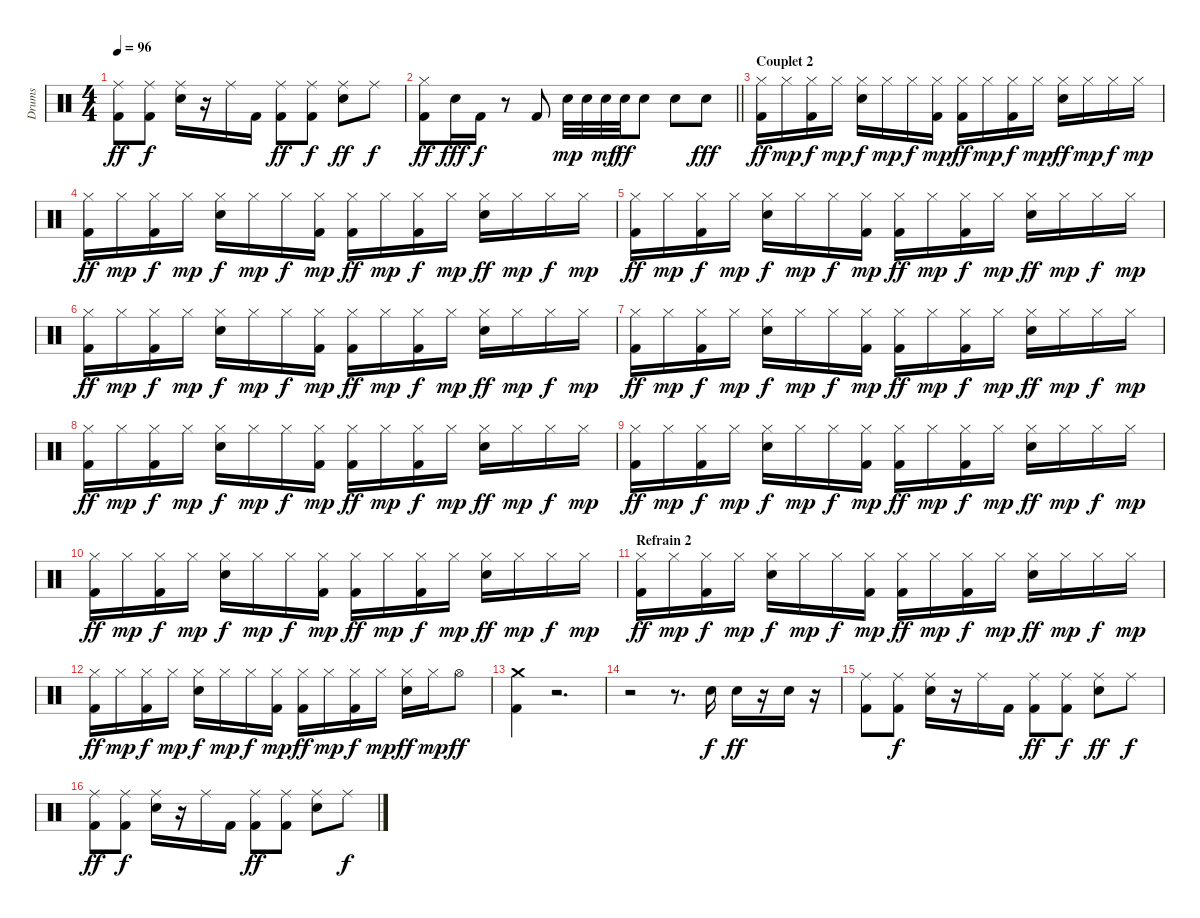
\track ("Drums" "Drums") {instrument percussion}
\staff {score}
\articulation defaults
\ts (4 4)
\tempo 96
\clef neutral
\ks c
("Ride (middle)" "Kick (hit) 2").8{dy ff} ("Ride (middle)" "Kick (hit) 2").8{dy f} ("Ride (middle)" "Snare (hit) 2").16 r.16 "Ride (middle)".16 "Kick (hit) 2".16 ("Ride (middle)" "Kick (hit) 2").8{dy ff} ("Ride (middle)" "Kick (hit) 2").8{dy f} ("Ride (middle)" "Snare (hit) 2").8{dy ff} "Ride (middle)".8{dy f} |
\barLineRight lightlight
("Hi-Hat (closed)" "Kick (hit) 2").8{dy ff} "Snare (hit) 2".16{dy fff} "Kick (hit) 2".16{dy f} r.8 "Kick (hit) 2".8 "Snare (hit) 2".32{dy mp} "Snare (hit) 2".32 "Snare (hit) 2".32{dy mf} "Snare (hit) 2".32{dy ff} "Snare (hit) 2".8 "Snare (hit) 2".8 "Snare (hit) 2".8{dy fff} |
\section ("" "Couplet 2")
("Hi-Hat (closed)" "Kick (hit) 2").16{dy ff} "Hi-Hat (closed)".16{dy mp} ("Hi-Hat (closed)" "Kick (hit) 2").16{dy f} "Hi-Hat (closed)".16{dy mp} ("Hi-Hat (closed)" "Snare (hit) 2").16{dy f} "Hi-Hat (closed)".16{dy mp} "Hi-Hat (closed)".16{dy f} ("Hi-Hat (closed)" "Kick (hit) 2").16{dy mp} ("Hi-Hat (closed)" "Kick (hit) 2").16{dy ff} "Hi-Hat (closed)".16{dy mp} ("Hi-Hat (closed)" "Kick (hit) 2").16{dy f} "Hi-Hat (closed)".16{dy mp} ("Hi-Hat (closed)" "Snare (hit) 2").16{dy ff} "Hi-Hat (closed)".16{dy mp} "Hi-Hat (closed)".16{dy f} "Hi-Hat (closed)".16{dy mp} |
("Hi-Hat (closed)" "Kick (hit) 2").16{dy ff} "Hi-Hat (closed)".16{dy mp} ("Hi-Hat (closed)" "Kick (hit) 2").16{dy f} "Hi-Hat (closed)".16{dy mp} ("Hi-Hat (closed)" "Snare (hit) 2").16{dy f} "Hi-Hat (closed)".16{dy mp} "Hi-Hat (closed)".16{dy f} ("Hi-Hat (closed)" "Kick (hit) 2").16{dy mp} ("Hi-Hat (closed)" "Kick (hit) 2").16{dy ff} "Hi-Hat (closed)".16{dy mp} ("Hi-Hat (closed)" "Kick (hit) 2").16{dy f} "Hi-Hat (closed)".16{dy mp} ("Hi-Hat (closed)" "Snare (hit) 2").16{dy ff} "Hi-Hat (closed)".16{dy mp} "Hi-Hat (closed)".16{dy f} "Hi-Hat (closed)".16{dy mp} |
("Hi-Hat (closed)" "Kick (hit) 2").16{dy ff} "Hi-Hat (closed)".16{dy mp} ("Hi-Hat (closed)" "Kick (hit) 2").16{dy f} "Hi-Hat (closed)".16{dy mp} ("Hi-Hat (closed)" "Snare (hit) 2").16{dy f} "Hi-Hat (closed)".16{dy mp} "Hi-Hat (closed)".16{dy f} ("Hi-Hat (closed)" "Kick (hit) 2").16{dy mp} ("Hi-Hat (closed)" "Kick (hit) 2").16{dy ff} "Hi-Hat (closed)".16{dy mp} ("Hi-Hat (closed)" "Kick (hit) 2").16{dy f} "Hi-Hat (closed)".16{dy mp} ("Hi-Hat (closed)" "Snare (hit) 2").16{dy ff} "Hi-Hat (closed)".16{dy mp} "Hi-Hat (closed)".16{dy f} "Hi-Hat (closed)".16{dy mp} |
("Hi-Hat (closed)" "Kick (hit) 2").16{dy ff} "Hi-Hat (closed)".16{dy mp} ("Hi-Hat (closed)" "Kick (hit) 2").16{dy f} "Hi-Hat (closed)".16{dy mp} ("Hi-Hat (closed)" "Snare (hit) 2").16{dy f} "Hi-Hat (closed)".16{dy mp} "Hi-Hat (closed)".16{dy f} ("Hi-Hat (closed)" "Kick (hit) 2").16{dy mp} ("Hi-Hat (closed)" "Kick (hit) 2").16{dy ff} "Hi-Hat (closed)".16{dy mp} ("Hi-Hat (closed)" "Kick (hit) 2").16{dy f} "Hi-Hat (closed)".16{dy mp} ("Hi-Hat (closed)" "Snare (hit) 2").16{dy ff} "Hi-Hat (closed)".16{dy mp} "Hi-Hat (closed)".16{dy f} "Hi-Hat (closed)".16{dy mp} |
("Hi-Hat (closed)" "Kick (hit) 2").16{dy ff} "Hi-Hat (closed)".16{dy mp} ("Hi-Hat (closed)" "Kick (hit) 2").16{dy f} "Hi-Hat (closed)".16{dy mp} ("Hi-Hat (closed)" "Snare (hit) 2").16{dy f} "Hi-Hat (closed)".16{dy mp} "Hi-Hat (closed)".16{dy f} ("Hi-Hat (closed)" "Kick (hit) 2").16{dy mp} ("Hi-Hat (closed)" "Kick (hit) 2").16{dy ff} "Hi-Hat (closed)".16{dy mp} ("Hi-Hat (closed)" "Kick (hit) 2").16{dy f} "Hi-Hat (closed)".16{dy mp} ("Hi-Hat (closed)" "Snare (hit) 2").16{dy ff} "Hi-Hat (closed)".16{dy mp} "Hi-Hat (closed)".16{dy f} "Hi-Hat (closed)".16{dy mp} |
("Hi-Hat (closed)" "Kick (hit) 2").16{dy ff} "Hi-Hat (closed)".16{dy mp} ("Hi-Hat (closed)" "Kick (hit) 2").16{dy f} "Hi-Hat (closed)".16{dy mp} ("Hi-Hat (closed)" "Snare (hit) 2").16{dy f} "Hi-Hat (closed)".16{dy mp} "Hi-Hat (closed)".16{dy f} ("Hi-Hat (closed)" "Kick (hit) 2").16{dy mp} ("Hi-Hat (closed)" "Kick (hit) 2").16{dy ff} "Hi-Hat (closed)".16{dy mp} ("Hi-Hat (closed)" "Kick (hit) 2").16{dy f} "Hi-Hat (closed)".16{dy mp} ("Hi-Hat (closed)" "Snare (hit) 2").16{dy ff} "Hi-Hat (closed)".16{dy mp} "Hi-Hat (closed)".16{dy f} "Hi-Hat (closed)".16{dy mp} |
("Hi-Hat (closed)" "Kick (hit) 2").16{dy ff} "Hi-Hat (closed)".16{dy mp} ("Hi-Hat (closed)" "Kick (hit) 2").16{dy f} "Hi-Hat (closed)".16{dy mp} ("Hi-Hat (closed)" "Snare (hit) 2").16{dy f} "Hi-Hat (closed)".16{dy mp} "Hi-Hat (closed)".16{dy f} ("Hi-Hat (closed)" "Kick (hit) 2").16{dy mp} ("Hi-Hat (closed)" "Kick (hit) 2").16{dy ff} "Hi-Hat (closed)".16{dy mp} ("Hi-Hat (closed)" "Kick (hit) 2").16{dy f} "Hi-Hat (closed)".16{dy mp} ("Hi-Hat (closed)" "Snare (hit) 2").16{dy ff} "Hi-Hat (closed)".16{dy mp} "Hi-Hat (closed)".16{dy f} "Hi-Hat (closed)".16{dy mp} |
("Hi-Hat (closed)" "Kick (hit) 2").16{dy ff} "Hi-Hat (closed)".16{dy mp} ("Hi-Hat (closed)" "Kick (hit) 2").16{dy f} "Hi-Hat (closed)".16{dy mp} ("Hi-Hat (closed)" "Snare (hit) 2").16{dy f} "Hi-Hat (closed)".16{dy mp} "Hi-Hat (closed)".16{dy f} ("Hi-Hat (closed)" "Kick (hit) 2").16{dy mp} ("Hi-Hat (closed)" "Kick (hit) 2").16{dy ff} "Hi-Hat (closed)".16{dy mp} ("Hi-Hat (closed)" "Kick (hit) 2").16{dy f} "Hi-Hat (closed)".16{dy mp} ("Hi-Hat (closed)" "Snare (hit) 2").16{dy ff} "Hi-Hat (closed)".16{dy mp} "Hi-Hat (closed)".16{dy f} "Hi-Hat (closed)".16{dy mp} |
\section ("" "Refrain 2")
("Hi-Hat (closed)" "Kick (hit) 2").16{dy ff} "Hi-Hat (closed)".16{dy mp} ("Hi-Hat (closed)" "Kick (hit) 2").16{dy f} "Hi-Hat (closed)".16{dy mp} ("Hi-Hat (closed)" "Snare (hit) 2").16{dy f} "Hi-Hat (closed)".16{dy mp} "Hi-Hat (closed)".16{dy f} ("Hi-Hat (closed)" "Kick (hit) 2").16{dy mp} ("Hi-Hat (closed)" "Kick (hit) 2").16{dy ff} "Hi-Hat (closed)".16{dy mp} ("Hi-Hat (closed)" "Kick (hit) 2").16{dy f} "Hi-Hat (closed)".16{dy mp} ("Hi-Hat (closed)" "Snare (hit) 2").16{dy ff} "Hi-Hat (closed)".16{dy mp} "Hi-Hat (closed)".16{dy f} "Hi-Hat (closed)".16{dy mp} |
("Hi-Hat (closed)" "Kick (hit) 2").16{dy ff} "Hi-Hat (closed)".16{dy mp} ("Hi-Hat (closed)" "Kick (hit) 2").16{dy f} "Hi-Hat (closed)".16{dy mp} ("Hi-Hat (closed)" "Snare (hit) 2").16{dy f} "Hi-Hat (closed)".16{dy mp} "Hi-Hat (closed)".16{dy f} ("Hi-Hat (closed)" "Kick (hit) 2").16{dy mp} ("Hi-Hat (closed)" "Kick (hit) 2").16{dy ff} "Hi-Hat (closed)".16{dy mp} ("Hi-Hat (closed)" "Kick (hit) 2").16{dy f} "Hi-Hat (closed)".16{dy mp} ("Hi-Hat (closed)" "Snare (hit) 2").16{dy ff} "Hi-Hat (closed)".16{dy mp} "Hi-Hat (open)".8{dy ff} |
("Crash medium (hit)" "Kick (hit) 2").4 r.2{d} |
r.2 r.8{d} "Snare (hit) 2".16{dy f} "Snare (hit) 2".16{dy ff} r.16 "Snare (hit) 2".16 r.16 |
("Ride (middle)" "Kick (hit) 2").8 ("Ride (middle)" "Kick (hit) 2").8{dy f} ("Ride (middle)" "Snare (hit) 2").16 r.16 "Ride (middle)".16 "Kick (hit) 2".16 ("Ride (middle)" "Kick (hit) 2").8{dy ff} ("Ride (middle)" "Kick (hit) 2").8{dy f} ("Ride (middle)" "Snare (hit) 2").8{dy ff} "Ride (middle)".8{dy f} |
("Ride (middle)" "Kick (hit) 2").8{dy ff} ("Ride (middle)" "Kick (hit) 2").8{dy f} ("Ride (middle)" "Snare (hit) 2").16 r.16 "Ride (middle)".16 "Kick (hit) 2".16 ("Ride (middle)" "Kick (hit) 2").8{dy ff} ("Ride (middle)" "Kick (hit) 2").8 ("Ride (middle)" "Snare (hit) 2").8 "Ride (middle)".8{dy f}
